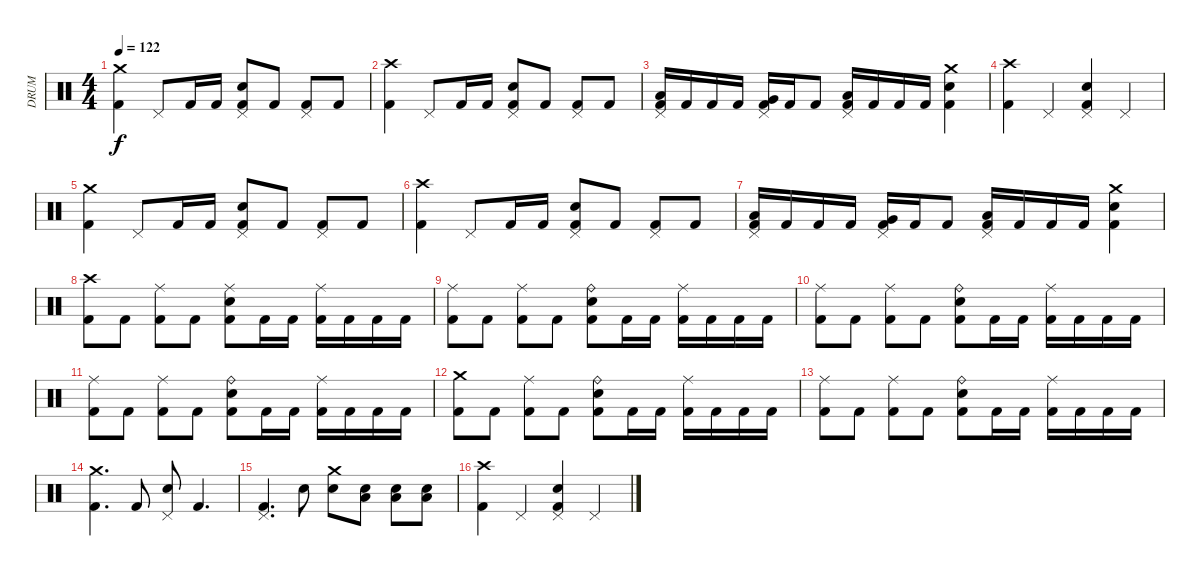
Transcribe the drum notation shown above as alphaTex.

\track ("DRUM" "DRUM") {instrument percussion}
\staff {score}
\articulation defaults
\ts (4 4)
\tempo 122
\clef neutral
\ks c
("Crash medium (hit)" "Kick (hit) 2").4{dy f} "Pedal Hi-Hat (hit)".8 "Kick (hit) 2".16 "Kick (hit) 2".16 ("Pedal Hi-Hat (hit)" "Electric Snare (hit)" "Kick (hit) 2").8 "Kick (hit) 2".8 ("Pedal Hi-Hat (hit)" "Kick (hit) 2").8 "Kick (hit) 2".8 |
("Crash high (hit)" "Kick (hit) 2").4 "Pedal Hi-Hat (hit)".8 "Kick (hit) 2".16 "Kick (hit) 2".16 ("Pedal Hi-Hat (hit)" "Electric Snare (hit)" "Kick (hit) 2").8 "Kick (hit) 2".8 ("Pedal Hi-Hat (hit)" "Kick (hit) 2").8 "Kick (hit) 2".8 |
("Low Tom (hit)" "Kick (hit) 2" "Pedal Hi-Hat (hit)").16 "Kick (hit) 2".16 "Kick (hit) 2".16 "Kick (hit) 2".16 ("Very Low Tom (hit)" "Kick (hit) 2" "Pedal Hi-Hat (hit)").16 "Kick (hit) 2".16 "Kick (hit) 2".8 ("Low Floor Tom (hit)" "Kick (hit) 2" "Pedal Hi-Hat (hit)").16 "Kick (hit) 2".16 "Kick (hit) 2".16 "Kick (hit) 2".16 ("Crash medium (hit)" "Electric Snare (hit)" "Kick (hit) 2").4 |
("Crash high (hit)" "Kick (hit) 2").4 "Pedal Hi-Hat (hit)".4 ("Pedal Hi-Hat (hit)" "Electric Snare (hit)" "Kick (hit) 2").4 "Pedal Hi-Hat (hit)".4 |
("Crash medium (hit)" "Kick (hit) 2").4 "Pedal Hi-Hat (hit)".8 "Kick (hit) 2".16 "Kick (hit) 2".16 ("Pedal Hi-Hat (hit)" "Electric Snare (hit)" "Kick (hit) 2").8 "Kick (hit) 2".8 ("Pedal Hi-Hat (hit)" "Kick (hit) 2").8 "Kick (hit) 2".8 |
("Crash high (hit)" "Kick (hit) 2").4 "Pedal Hi-Hat (hit)".8 "Kick (hit) 2".16 "Kick (hit) 2".16 ("Pedal Hi-Hat (hit)" "Electric Snare (hit)" "Kick (hit) 2").8 "Kick (hit) 2".8 ("Pedal Hi-Hat (hit)" "Kick (hit) 2").8 "Kick (hit) 2".8 |
("Low Tom (hit)" "Kick (hit) 2" "Pedal Hi-Hat (hit)").16 "Kick (hit) 2".16 "Kick (hit) 2".16 "Kick (hit) 2".16 ("Very Low Tom (hit)" "Kick (hit) 2" "Pedal Hi-Hat (hit)").16 "Kick (hit) 2".16 "Kick (hit) 2".8 ("Low Floor Tom (hit)" "Kick (hit) 2" "Pedal Hi-Hat (hit)").16 "Kick (hit) 2".16 "Kick (hit) 2".16 "Kick (hit) 2".16 ("Crash medium (hit)" "Electric Snare (hit)" "Kick (hit) 2").4 |
("Crash high (hit)" "Kick (hit) 2").8 "Kick (hit) 2".8 ("Ride (middle)" "Kick (hit) 2").8 "Kick (hit) 2".8 ("Ride (middle)" "Electric Snare (hit)" "Kick (hit) 2").8 "Kick (hit) 2".16 "Kick (hit) 2".16 ("Ride (middle)" "Kick (hit) 2").16 "Kick (hit) 2".16 "Kick (hit) 2".16 "Kick (hit) 2".16 |
("Ride (middle)" "Kick (hit) 2").8 "Kick (hit) 2".8 ("Ride (middle)" "Kick (hit) 2").8 "Kick (hit) 2".8 ("Ride (bell)" "Electric Snare (hit)" "Kick (hit) 2").8 "Kick (hit) 2".16 "Kick (hit) 2".16 ("Ride (middle)" "Kick (hit) 2").16 "Kick (hit) 2".16 "Kick (hit) 2".16 "Kick (hit) 2".16 |
("Ride (middle)" "Kick (hit) 2").8 "Kick (hit) 2".8 ("Ride (middle)" "Kick (hit) 2").8 "Kick (hit) 2".8 ("Ride (bell)" "Electric Snare (hit)" "Kick (hit) 2").8 "Kick (hit) 2".16 "Kick (hit) 2".16 ("Ride (middle)" "Kick (hit) 2").16 "Kick (hit) 2".16 "Kick (hit) 2".16 "Kick (hit) 2".16 |
("Ride (middle)" "Kick (hit) 2").8 "Kick (hit) 2".8 ("Ride (middle)" "Kick (hit) 2").8 "Kick (hit) 2".8 ("Ride (bell)" "Electric Snare (hit)" "Kick (hit) 2").8 "Kick (hit) 2".16 "Kick (hit) 2".16 ("Ride (middle)" "Kick (hit) 2").16 "Kick (hit) 2".16 "Kick (hit) 2".16 "Kick (hit) 2".16 |
("Crash medium (hit)" "Kick (hit) 2").8 "Kick (hit) 2".8 ("Ride (middle)" "Kick (hit) 2").8 "Kick (hit) 2".8 ("Ride (bell)" "Electric Snare (hit)" "Kick (hit) 2").8 "Kick (hit) 2".16 "Kick (hit) 2".16 ("Ride (middle)" "Kick (hit) 2").16 "Kick (hit) 2".16 "Kick (hit) 2".16 "Kick (hit) 2".16 |
("Ride (middle)" "Kick (hit) 2").8 "Kick (hit) 2".8 ("Ride (middle)" "Kick (hit) 2").8 "Kick (hit) 2".8 ("Ride (bell)" "Electric Snare (hit)" "Kick (hit) 2").8 "Kick (hit) 2".16 "Kick (hit) 2".16 ("Ride (middle)" "Kick (hit) 2").16 "Kick (hit) 2".16 "Kick (hit) 2".16 "Kick (hit) 2".16 |
("Kick (hit) 2" "Crash medium (hit)").4{d} "Kick (hit) 2".8 ("Snare (hit) 2" "Pedal Hi-Hat (hit)").8 "Kick (hit) 2".4{d} |
("Kick (hit) 2" "Pedal Hi-Hat (hit)").4{d} "Electric Snare (hit)".8 ("Electric Snare (hit)" "Crash medium (hit)").8 ("Electric Snare (hit)" "Low Floor Tom (hit)").8 ("Electric Snare (hit)" "Low Floor Tom (hit)").8 ("Electric Snare (hit)" "Low Floor Tom (hit)").8 |
("Crash high (hit)" "Kick (hit) 2").4 "Pedal Hi-Hat (hit)".4 ("Pedal Hi-Hat (hit)" "Electric Snare (hit)" "Kick (hit) 2").4 "Pedal Hi-Hat (hit)".4
